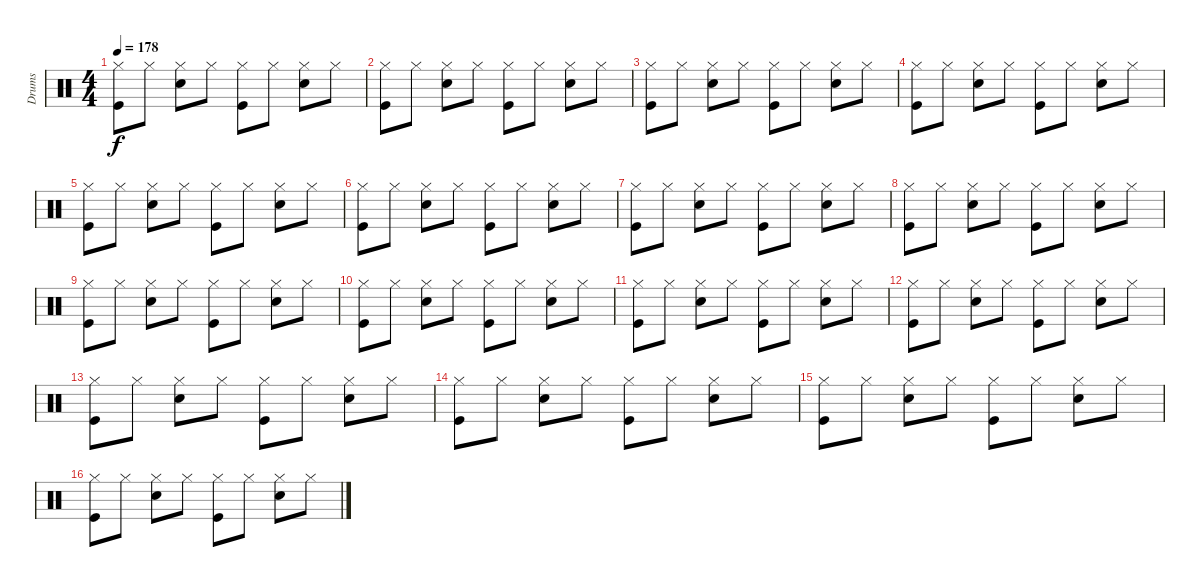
\track ("Drums" "Drums") {instrument percussion}
\staff {score}
\articulation defaults
\ts (4 4)
\tempo 178
\clef neutral
\ks c
("Hi-Hat (closed)" "Kick (hit)").8{dy f} "Hi-Hat (closed)".8 ("Hi-Hat (closed)" "Electric Snare (hit)").8 "Hi-Hat (closed)".8 ("Hi-Hat (closed)" "Kick (hit)").8 "Hi-Hat (closed)".8 ("Hi-Hat (closed)" "Electric Snare (hit)").8 "Hi-Hat (closed)".8 |
("Hi-Hat (closed)" "Kick (hit)").8 "Hi-Hat (closed)".8 ("Hi-Hat (closed)" "Electric Snare (hit)").8 "Hi-Hat (closed)".8 ("Hi-Hat (closed)" "Kick (hit)").8 "Hi-Hat (closed)".8 ("Hi-Hat (closed)" "Electric Snare (hit)").8 "Hi-Hat (closed)".8 |
("Hi-Hat (closed)" "Kick (hit)").8 "Hi-Hat (closed)".8 ("Hi-Hat (closed)" "Electric Snare (hit)").8 "Hi-Hat (closed)".8 ("Hi-Hat (closed)" "Kick (hit)").8 "Hi-Hat (closed)".8 ("Hi-Hat (closed)" "Electric Snare (hit)").8 "Hi-Hat (closed)".8 |
("Hi-Hat (closed)" "Kick (hit)").8 "Hi-Hat (closed)".8 ("Hi-Hat (closed)" "Electric Snare (hit)").8 "Hi-Hat (closed)".8 ("Hi-Hat (closed)" "Kick (hit)").8 "Hi-Hat (closed)".8 ("Hi-Hat (closed)" "Electric Snare (hit)").8 "Hi-Hat (closed)".8 |
("Hi-Hat (closed)" "Kick (hit)").8 "Hi-Hat (closed)".8 ("Hi-Hat (closed)" "Electric Snare (hit)").8 "Hi-Hat (closed)".8 ("Hi-Hat (closed)" "Kick (hit)").8 "Hi-Hat (closed)".8 ("Hi-Hat (closed)" "Electric Snare (hit)").8 "Hi-Hat (closed)".8 |
("Hi-Hat (closed)" "Kick (hit)").8 "Hi-Hat (closed)".8 ("Hi-Hat (closed)" "Electric Snare (hit)").8 "Hi-Hat (closed)".8 ("Hi-Hat (closed)" "Kick (hit)").8 "Hi-Hat (closed)".8 ("Hi-Hat (closed)" "Electric Snare (hit)").8 "Hi-Hat (closed)".8 |
("Hi-Hat (closed)" "Kick (hit)").8 "Hi-Hat (closed)".8 ("Hi-Hat (closed)" "Electric Snare (hit)").8 "Hi-Hat (closed)".8 ("Hi-Hat (closed)" "Kick (hit)").8 "Hi-Hat (closed)".8 ("Hi-Hat (closed)" "Electric Snare (hit)").8 "Hi-Hat (closed)".8 |
("Hi-Hat (closed)" "Kick (hit)").8 "Hi-Hat (closed)".8 ("Hi-Hat (closed)" "Electric Snare (hit)").8 "Hi-Hat (closed)".8 ("Hi-Hat (closed)" "Kick (hit)").8 "Hi-Hat (closed)".8 ("Hi-Hat (closed)" "Electric Snare (hit)").8 "Hi-Hat (closed)".8 |
("Hi-Hat (closed)" "Kick (hit)").8 "Hi-Hat (closed)".8 ("Hi-Hat (closed)" "Electric Snare (hit)").8 "Hi-Hat (closed)".8 ("Hi-Hat (closed)" "Kick (hit)").8 "Hi-Hat (closed)".8 ("Hi-Hat (closed)" "Electric Snare (hit)").8 "Hi-Hat (closed)".8 |
("Hi-Hat (closed)" "Kick (hit)").8 "Hi-Hat (closed)".8 ("Hi-Hat (closed)" "Electric Snare (hit)").8 "Hi-Hat (closed)".8 ("Hi-Hat (closed)" "Kick (hit)").8 "Hi-Hat (closed)".8 ("Hi-Hat (closed)" "Electric Snare (hit)").8 "Hi-Hat (closed)".8 |
("Hi-Hat (closed)" "Kick (hit)").8 "Hi-Hat (closed)".8 ("Hi-Hat (closed)" "Electric Snare (hit)").8 "Hi-Hat (closed)".8 ("Hi-Hat (closed)" "Kick (hit)").8 "Hi-Hat (closed)".8 ("Hi-Hat (closed)" "Electric Snare (hit)").8 "Hi-Hat (closed)".8 |
("Hi-Hat (closed)" "Kick (hit)").8 "Hi-Hat (closed)".8 ("Hi-Hat (closed)" "Electric Snare (hit)").8 "Hi-Hat (closed)".8 ("Hi-Hat (closed)" "Kick (hit)").8 "Hi-Hat (closed)".8 ("Hi-Hat (closed)" "Electric Snare (hit)").8 "Hi-Hat (closed)".8 |
("Hi-Hat (closed)" "Kick (hit)").8 "Hi-Hat (closed)".8 ("Hi-Hat (closed)" "Electric Snare (hit)").8 "Hi-Hat (closed)".8 ("Hi-Hat (closed)" "Kick (hit)").8 "Hi-Hat (closed)".8 ("Hi-Hat (closed)" "Electric Snare (hit)").8 "Hi-Hat (closed)".8 |
("Hi-Hat (closed)" "Kick (hit)").8 "Hi-Hat (closed)".8 ("Hi-Hat (closed)" "Electric Snare (hit)").8 "Hi-Hat (closed)".8 ("Hi-Hat (closed)" "Kick (hit)").8 "Hi-Hat (closed)".8 ("Hi-Hat (closed)" "Electric Snare (hit)").8 "Hi-Hat (closed)".8 |
("Hi-Hat (closed)" "Kick (hit)").8 "Hi-Hat (closed)".8 ("Hi-Hat (closed)" "Electric Snare (hit)").8 "Hi-Hat (closed)".8 ("Hi-Hat (closed)" "Kick (hit)").8 "Hi-Hat (closed)".8 ("Hi-Hat (closed)" "Electric Snare (hit)").8 "Hi-Hat (closed)".8 |
("Hi-Hat (closed)" "Kick (hit)").8 "Hi-Hat (closed)".8 ("Hi-Hat (closed)" "Electric Snare (hit)").8 "Hi-Hat (closed)".8 ("Hi-Hat (closed)" "Kick (hit)").8 "Hi-Hat (closed)".8 ("Hi-Hat (closed)" "Electric Snare (hit)").8 "Hi-Hat (closed)".8
